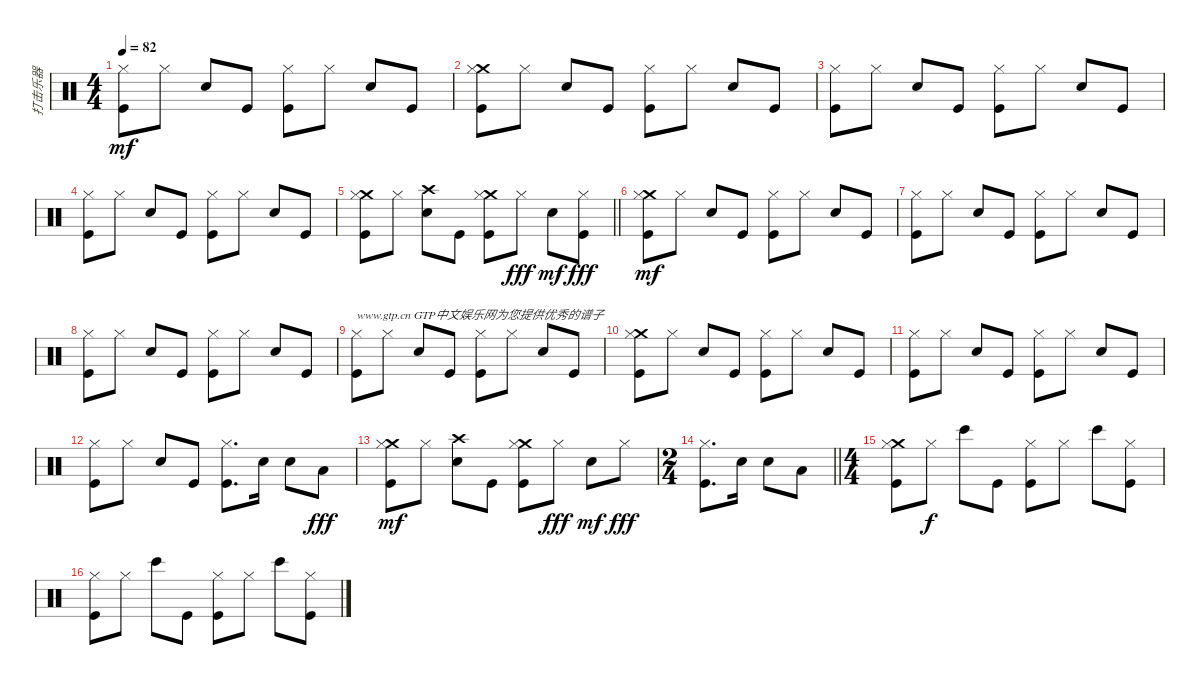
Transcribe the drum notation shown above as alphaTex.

\track ("打击乐器" "打击乐器") {instrument percussion}
\staff {score}
\articulation defaults
\ts (4 4)
\tempo 82
\clef neutral
\ks c
("Hi-Hat (closed)" "Kick (hit)").8{dy mf} "Hi-Hat (closed)".8 "Electric Snare (hit)".8 "Kick (hit)".8 ("Hi-Hat (closed)" "Kick (hit)").8 "Hi-Hat (closed)".8 "Electric Snare (hit)".8 "Kick (hit)".8 |
("Crash medium (hit)" "Hi-Hat (closed)" "Kick (hit)").8 "Hi-Hat (closed)".8 "Electric Snare (hit)".8 "Kick (hit)".8 ("Hi-Hat (closed)" "Kick (hit)").8 "Hi-Hat (closed)".8 "Electric Snare (hit)".8 "Kick (hit)".8 |
("Hi-Hat (closed)" "Kick (hit)").8 "Hi-Hat (closed)".8 "Electric Snare (hit)".8 "Kick (hit)".8 ("Hi-Hat (closed)" "Kick (hit)").8 "Hi-Hat (closed)".8 "Electric Snare (hit)".8 "Kick (hit)".8 |
("Hi-Hat (closed)" "Kick (hit)").8 "Hi-Hat (closed)".8 "Electric Snare (hit)".8 "Kick (hit)".8 ("Hi-Hat (closed)" "Kick (hit)").8 "Hi-Hat (closed)".8 "Electric Snare (hit)".8 "Kick (hit)".8 |
\barLineRight lightlight
("Crash medium (hit)" "Hi-Hat (closed)" "Kick (hit)").8 "Hi-Hat (closed)".8 ("Crash high (hit)" "Electric Snare (hit)").8 "Kick (hit)".8 ("Crash medium (hit)" "Hi-Hat (closed)" "Kick (hit)").8 "Hi-Hat (closed)".8{dy fff} "Electric Snare (hit)".8{dy mf} ("Hi-Hat (closed)" "Kick (hit)").8{dy fff} |
\section ("" "")
("Crash medium (hit)" "Hi-Hat (closed)" "Kick (hit)").8{dy mf} "Hi-Hat (closed)".8 "Electric Snare (hit)".8 "Kick (hit)".8 ("Hi-Hat (closed)" "Kick (hit)").8 "Hi-Hat (closed)".8 "Electric Snare (hit)".8 "Kick (hit)".8 |
("Hi-Hat (closed)" "Kick (hit)").8 "Hi-Hat (closed)".8 "Electric Snare (hit)".8 "Kick (hit)".8 ("Hi-Hat (closed)" "Kick (hit)").8 "Hi-Hat (closed)".8 "Electric Snare (hit)".8 "Kick (hit)".8 |
("Hi-Hat (closed)" "Kick (hit)").8 "Hi-Hat (closed)".8 "Electric Snare (hit)".8 "Kick (hit)".8 ("Hi-Hat (closed)" "Kick (hit)").8 "Hi-Hat (closed)".8 "Electric Snare (hit)".8 "Kick (hit)".8 |
("Hi-Hat (closed)" "Kick (hit)").8{txt "www.gtp.cn GTP中文娱乐网为您提供优秀的谱子"} "Hi-Hat (closed)".8 "Electric Snare (hit)".8 "Kick (hit)".8 ("Hi-Hat (closed)" "Kick (hit)").8 "Hi-Hat (closed)".8 "Electric Snare (hit)".8 "Kick (hit)".8 |
("Crash medium (hit)" "Hi-Hat (closed)" "Kick (hit)").8 "Hi-Hat (closed)".8 "Electric Snare (hit)".8 "Kick (hit)".8 ("Hi-Hat (closed)" "Kick (hit)").8 "Hi-Hat (closed)".8 "Electric Snare (hit)".8 "Kick (hit)".8 |
("Hi-Hat (closed)" "Kick (hit)").8 "Hi-Hat (closed)".8 "Electric Snare (hit)".8 "Kick (hit)".8 ("Hi-Hat (closed)" "Kick (hit)").8 "Hi-Hat (closed)".8 "Electric Snare (hit)".8 "Kick (hit)".8 |
("Hi-Hat (closed)" "Kick (hit)").8 "Hi-Hat (closed)".8 "Electric Snare (hit)".8 "Kick (hit)".8 ("Hi-Hat (closed)" "Kick (hit)").8{d} "Electric Snare (hit)".16 "Electric Snare (hit)".8 "Low Tom (hit)".8{dy fff} |
("Crash medium (hit)" "Hi-Hat (closed)" "Kick (hit)").8{dy mf} "Hi-Hat (closed)".8 ("Crash high (hit)" "Electric Snare (hit)").8 "Kick (hit)".8 ("Crash medium (hit)" "Hi-Hat (closed)" "Kick (hit)").8 "Hi-Hat (closed)".8{dy fff} "Electric Snare (hit)".8{dy mf} "Hi-Hat (closed)".8{dy fff} |
\ts (2 4)
\barLineRight lightlight
("Hi-Hat (closed)" "Kick (hit)").8{d} "Electric Snare (hit)".16 "Electric Snare (hit)".8 "Low Tom (hit)".8 |
\ts (4 4)
\section ("" "")
("Crash medium (hit)" "Hi-Hat (closed)" "Kick (hit)").8 "Hi-Hat (closed)".8{dy f} "Bongo High (hit)".8 "Kick (hit)".8 ("Hi-Hat (closed)" "Kick (hit)").8 "Hi-Hat (closed)".8 "Bongo High (hit)".8 ("Hi-Hat (closed)" "Kick (hit)").8 |
("Hi-Hat (closed)" "Kick (hit)").8 "Hi-Hat (closed)".8 "Bongo High (hit)".8 "Kick (hit)".8 ("Hi-Hat (closed)" "Kick (hit)").8 "Hi-Hat (closed)".8 "Bongo High (hit)".8 ("Hi-Hat (closed)" "Kick (hit)").8
